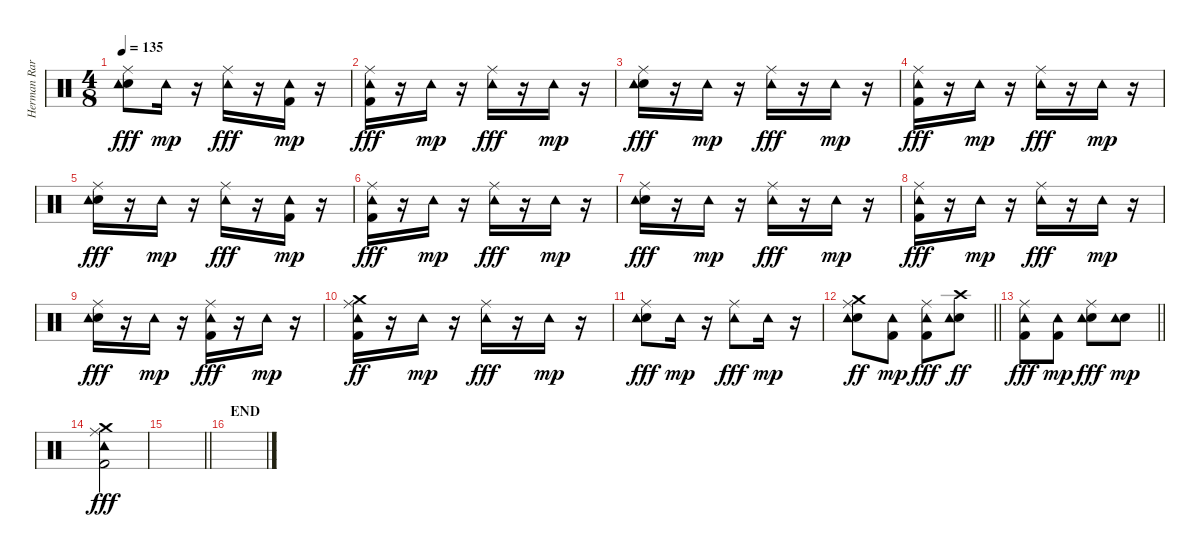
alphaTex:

\track ("Herman Rarebell" "Herman Rar") {instrument percussion}
\staff {score}
\articulation defaults
\ts (4 8)
\tempo 135
\clef neutral
\ks c
("Snare (hit) 2" "Ride (middle)" "Tambourine (hit)").8{dy fff} "Tambourine (hit)".16{dy mp} r.16 ("Ride (middle)" "Tambourine (hit)").16{dy fff} r.16 ("Kick (hit) 2" "Tambourine (hit)").16{dy mp} r.16 |
("Kick (hit) 2" "Ride (middle)" "Tambourine (hit)").16{dy fff} r.16 "Tambourine (hit)".16{dy mp} r.16 ("Ride (middle)" "Tambourine (hit)").16{dy fff} r.16 "Tambourine (hit)".16{dy mp} r.16 |
("Snare (hit) 2" "Ride (middle)" "Tambourine (hit)").16{dy fff} r.16 "Tambourine (hit)".16{dy mp} r.16 ("Ride (middle)" "Tambourine (hit)").16{dy fff} r.16 "Tambourine (hit)".16{dy mp} r.16 |
("Kick (hit) 2" "Ride (middle)" "Tambourine (hit)").16{dy fff} r.16 "Tambourine (hit)".16{dy mp} r.16 ("Ride (middle)" "Tambourine (hit)").16{dy fff} r.16 "Tambourine (hit)".16{dy mp} r.16 |
("Snare (hit) 2" "Ride (middle)" "Tambourine (hit)").16{dy fff} r.16 "Tambourine (hit)".16{dy mp} r.16 ("Ride (middle)" "Tambourine (hit)").16{dy fff} r.16 ("Kick (hit) 2" "Tambourine (hit)").16{dy mp} r.16 |
("Kick (hit) 2" "Ride (middle)" "Tambourine (hit)").16{dy fff} r.16 "Tambourine (hit)".16{dy mp} r.16 ("Ride (middle)" "Tambourine (hit)").16{dy fff} r.16 "Tambourine (hit)".16{dy mp} r.16 |
("Snare (hit) 2" "Ride (middle)" "Tambourine (hit)").16{dy fff} r.16 "Tambourine (hit)".16{dy mp} r.16 ("Ride (middle)" "Tambourine (hit)").16{dy fff} r.16 "Tambourine (hit)".16{dy mp} r.16 |
("Kick (hit) 2" "Ride (middle)" "Tambourine (hit)").16{dy fff} r.16 "Tambourine (hit)".16{dy mp} r.16 ("Ride (middle)" "Tambourine (hit)").16{dy fff} r.16 "Tambourine (hit)".16{dy mp} r.16 |
("Snare (hit) 2" "Ride (middle)" "Tambourine (hit)").16{dy fff} r.16 "Tambourine (hit)".16{dy mp} r.16 ("Kick (hit) 2" "Ride (middle)" "Tambourine (hit)").16{dy fff} r.16 "Tambourine (hit)".16{dy mp} r.16 |
("Kick (hit) 2" "Ride (middle)" "Tambourine (hit)" "Crash medium (hit)").16{dy ff} r.16 "Tambourine (hit)".16{dy mp} r.16 ("Ride (middle)" "Tambourine (hit)").16{dy fff} r.16 "Tambourine (hit)".16{dy mp} r.16 |
("Snare (hit) 2" "Ride (middle)" "Tambourine (hit)").8{dy fff} "Tambourine (hit)".16{dy mp} r.16 ("Ride (middle)" "Tambourine (hit)").8{dy fff} "Tambourine (hit)".16{dy mp} r.16 |
\barLineRight lightlight
("Snare (hit) 2" "Ride (middle)" "Tambourine (hit)" "Crash medium (hit)").8{dy ff} ("Kick (hit) 2" "Tambourine (hit)").8{dy mp} ("Kick (hit) 2" "Ride (middle)" "Tambourine (hit)").8{dy fff} ("Snare (hit) 2" "Tambourine (hit)" "Crash high (hit)").8{dy ff} |
\barLineRight lightlight
("Kick (hit) 2" "Ride (middle)" "Tambourine (hit)").8{dy fff} ("Kick (hit) 2" "Tambourine (hit)").8{dy mp} ("Snare (hit) 2" "Ride (middle)" "Tambourine (hit)").8{dy fff} ("Snare (hit) 2" "Tambourine (hit)").8{dy mp} |
\section ("" "")
("Kick (hit) 2" "Ride (middle)" "Tambourine (hit)" "Crash medium (hit)").2{dy fff} |
\barLineRight lightlight
|
\section ("" "END")
